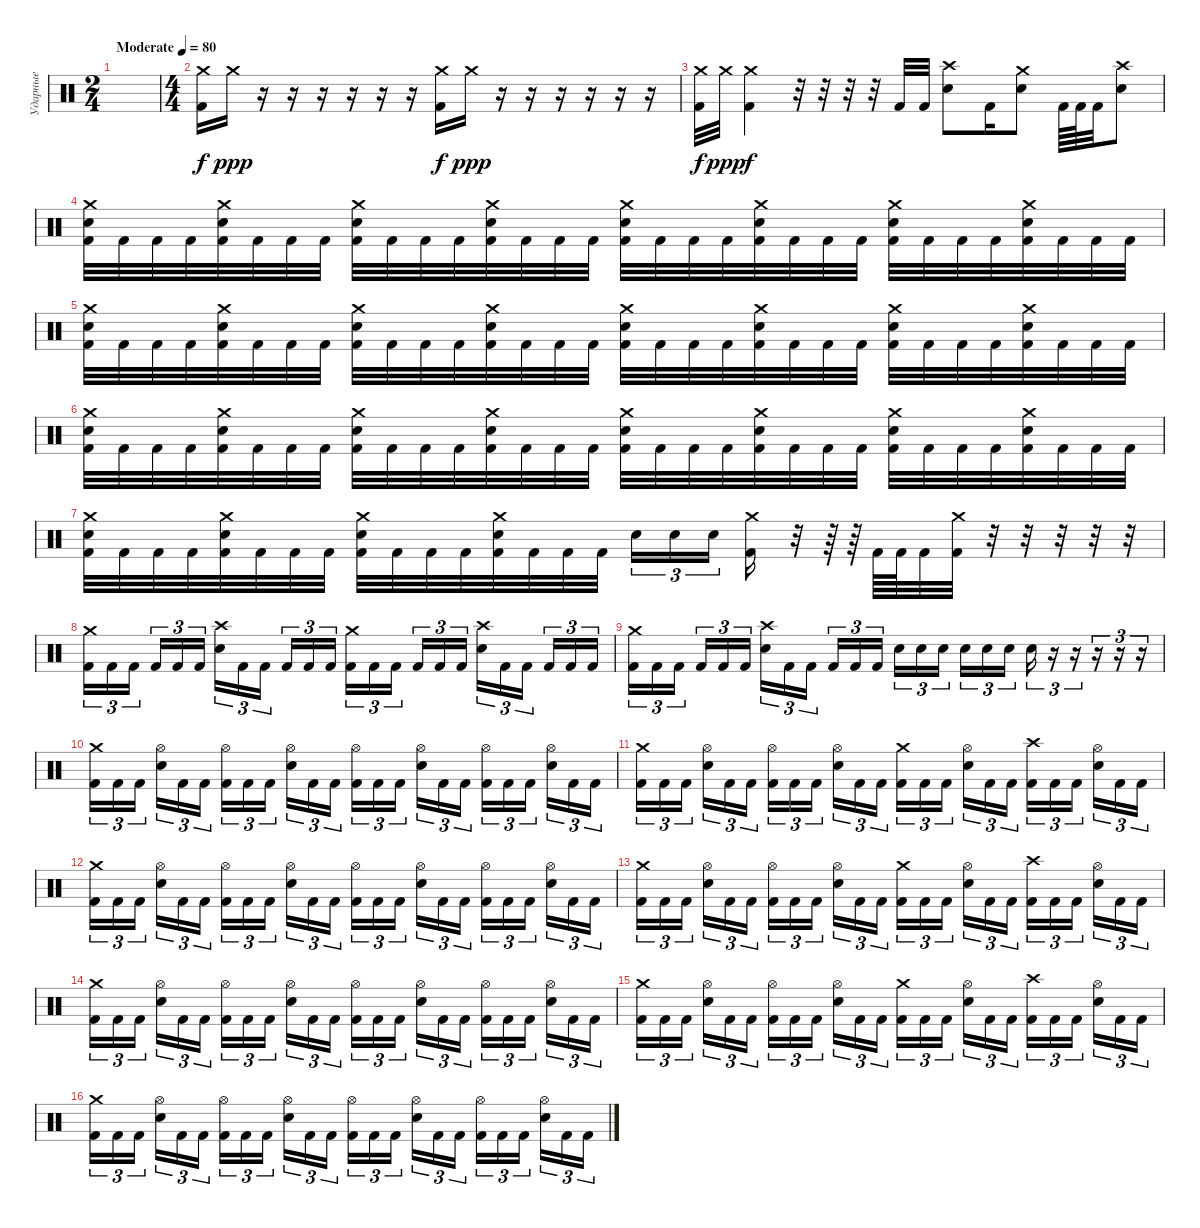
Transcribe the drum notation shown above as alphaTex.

\track ("Ударные" "Ударные") {instrument percussion}
\staff {score}
\articulation defaults
\ts (2 4)
\tempo (80 "Moderate")
\clef neutral
\ks c
|
\ts (4 4)
("Crash medium (hit)" "Kick (hit) 2").16 "Crash medium (hit)".16{dy ppp} r.16 r.16 r.16 r.16 r.16 r.16 ("Crash medium (hit)" "Kick (hit) 2").16{dy f} "Crash medium (hit)".16{dy ppp} r.16 r.16 r.16 r.16 r.16 r.16 |
("Crash medium (hit)" "Kick (hit) 2").32{dy f} "Crash medium (hit)".32{dy ppp} ("Crash medium (hit)" "Kick (hit) 2").4{dy f} r.32 r.32 r.32 r.32 "Kick (hit) 2".32 "Kick (hit) 2".32 ("Crash high (hit)" "Electric Snare (hit)").8 "Kick (hit) 2".16 ("Crash medium (hit)" "Electric Snare (hit)").8 "Kick (hit) 2".64 "Kick (hit) 2".64 "Kick (hit) 2".32 ("Crash high (hit)" "Electric Snare (hit)").8 |
("Crash medium (hit)" "Electric Snare (hit)" "Kick (hit) 2").32 "Kick (hit) 2".32 "Kick (hit) 2".32 "Kick (hit) 2".32 ("Crash medium (hit)" "Electric Snare (hit)" "Kick (hit) 2").32 "Kick (hit) 2".32 "Kick (hit) 2".32 "Kick (hit) 2".32 ("Crash medium (hit)" "Electric Snare (hit)" "Kick (hit) 2").32 "Kick (hit) 2".32 "Kick (hit) 2".32 "Kick (hit) 2".32 ("Crash medium (hit)" "Electric Snare (hit)" "Kick (hit) 2").32 "Kick (hit) 2".32 "Kick (hit) 2".32 "Kick (hit) 2".32 ("Crash medium (hit)" "Electric Snare (hit)" "Kick (hit) 2").32 "Kick (hit) 2".32 "Kick (hit) 2".32 "Kick (hit) 2".32 ("Crash medium (hit)" "Electric Snare (hit)" "Kick (hit) 2").32 "Kick (hit) 2".32 "Kick (hit) 2".32 "Kick (hit) 2".32 ("Crash medium (hit)" "Electric Snare (hit)" "Kick (hit) 2").32 "Kick (hit) 2".32 "Kick (hit) 2".32 "Kick (hit) 2".32 ("Crash medium (hit)" "Electric Snare (hit)" "Kick (hit) 2").32 "Kick (hit) 2".32 "Kick (hit) 2".32 "Kick (hit) 2".32 |
("Crash medium (hit)" "Electric Snare (hit)" "Kick (hit) 2").32 "Kick (hit) 2".32 "Kick (hit) 2".32 "Kick (hit) 2".32 ("Crash medium (hit)" "Electric Snare (hit)" "Kick (hit) 2").32 "Kick (hit) 2".32 "Kick (hit) 2".32 "Kick (hit) 2".32 ("Crash medium (hit)" "Electric Snare (hit)" "Kick (hit) 2").32 "Kick (hit) 2".32 "Kick (hit) 2".32 "Kick (hit) 2".32 ("Crash medium (hit)" "Electric Snare (hit)" "Kick (hit) 2").32 "Kick (hit) 2".32 "Kick (hit) 2".32 "Kick (hit) 2".32 ("Crash medium (hit)" "Electric Snare (hit)" "Kick (hit) 2").32 "Kick (hit) 2".32 "Kick (hit) 2".32 "Kick (hit) 2".32 ("Crash medium (hit)" "Electric Snare (hit)" "Kick (hit) 2").32 "Kick (hit) 2".32 "Kick (hit) 2".32 "Kick (hit) 2".32 ("Crash medium (hit)" "Electric Snare (hit)" "Kick (hit) 2").32 "Kick (hit) 2".32 "Kick (hit) 2".32 "Kick (hit) 2".32 ("Crash medium (hit)" "Electric Snare (hit)" "Kick (hit) 2").32 "Kick (hit) 2".32 "Kick (hit) 2".32 "Kick (hit) 2".32 |
("Crash medium (hit)" "Electric Snare (hit)" "Kick (hit) 2").32 "Kick (hit) 2".32 "Kick (hit) 2".32 "Kick (hit) 2".32 ("Crash medium (hit)" "Electric Snare (hit)" "Kick (hit) 2").32 "Kick (hit) 2".32 "Kick (hit) 2".32 "Kick (hit) 2".32 ("Crash medium (hit)" "Electric Snare (hit)" "Kick (hit) 2").32 "Kick (hit) 2".32 "Kick (hit) 2".32 "Kick (hit) 2".32 ("Crash medium (hit)" "Electric Snare (hit)" "Kick (hit) 2").32 "Kick (hit) 2".32 "Kick (hit) 2".32 "Kick (hit) 2".32 ("Crash medium (hit)" "Electric Snare (hit)" "Kick (hit) 2").32 "Kick (hit) 2".32 "Kick (hit) 2".32 "Kick (hit) 2".32 ("Crash medium (hit)" "Electric Snare (hit)" "Kick (hit) 2").32 "Kick (hit) 2".32 "Kick (hit) 2".32 "Kick (hit) 2".32 ("Crash medium (hit)" "Electric Snare (hit)" "Kick (hit) 2").32 "Kick (hit) 2".32 "Kick (hit) 2".32 "Kick (hit) 2".32 ("Crash medium (hit)" "Electric Snare (hit)" "Kick (hit) 2").32 "Kick (hit) 2".32 "Kick (hit) 2".32 "Kick (hit) 2".32 |
("Crash medium (hit)" "Electric Snare (hit)" "Kick (hit) 2").32 "Kick (hit) 2".32 "Kick (hit) 2".32 "Kick (hit) 2".32 ("Crash medium (hit)" "Electric Snare (hit)" "Kick (hit) 2").32 "Kick (hit) 2".32 "Kick (hit) 2".32 "Kick (hit) 2".32 ("Crash medium (hit)" "Electric Snare (hit)" "Kick (hit) 2").32 "Kick (hit) 2".32 "Kick (hit) 2".32 "Kick (hit) 2".32 ("Crash medium (hit)" "Electric Snare (hit)" "Kick (hit) 2").32 "Kick (hit) 2".32 "Kick (hit) 2".32 "Kick (hit) 2".32 "Electric Snare (hit)".16{tu (3 2)} "Electric Snare (hit)".16{tu (3 2)} "Electric Snare (hit)".16{tu (3 2) beam splitsecondary} ("Crash medium (hit)" "Kick (hit) 2").16 r.32 r.64 r.64 "Kick (hit) 2".64 "Kick (hit) 2".64 "Kick (hit) 2".32 ("Crash medium (hit)" "Kick (hit) 2").32 r.32 r.32 r.32 r.32 r.32 |
("Crash medium (hit)" "Kick (hit) 2").16{tu (3 2)} "Kick (hit) 2".16{tu (3 2)} "Kick (hit) 2".16{tu (3 2) beam splitsecondary} "Kick (hit) 2".16{tu (3 2)} "Kick (hit) 2".16{tu (3 2)} "Kick (hit) 2".16{tu (3 2)} ("Crash high (hit)" "Electric Snare (hit)").16{tu (3 2)} "Kick (hit) 2".16{tu (3 2)} "Kick (hit) 2".16{tu (3 2) beam splitsecondary} "Kick (hit) 2".16{tu (3 2)} "Kick (hit) 2".16{tu (3 2)} "Kick (hit) 2".16{tu (3 2)} ("Crash medium (hit)" "Kick (hit) 2").16{tu (3 2)} "Kick (hit) 2".16{tu (3 2)} "Kick (hit) 2".16{tu (3 2) beam splitsecondary} "Kick (hit) 2".16{tu (3 2)} "Kick (hit) 2".16{tu (3 2)} "Kick (hit) 2".16{tu (3 2)} ("Crash high (hit)" "Electric Snare (hit)").16{tu (3 2)} "Kick (hit) 2".16{tu (3 2)} "Kick (hit) 2".16{tu (3 2) beam splitsecondary} "Kick (hit) 2".16{tu (3 2)} "Kick (hit) 2".16{tu (3 2)} "Kick (hit) 2".16{tu (3 2)} |
("Crash medium (hit)" "Kick (hit) 2").16{tu (3 2)} "Kick (hit) 2".16{tu (3 2)} "Kick (hit) 2".16{tu (3 2) beam splitsecondary} "Kick (hit) 2".16{tu (3 2)} "Kick (hit) 2".16{tu (3 2)} "Kick (hit) 2".16{tu (3 2)} ("Crash high (hit)" "Electric Snare (hit)").16{tu (3 2)} "Kick (hit) 2".16{tu (3 2)} "Kick (hit) 2".16{tu (3 2) beam splitsecondary} "Kick (hit) 2".16{tu (3 2)} "Kick (hit) 2".16{tu (3 2)} "Kick (hit) 2".16{tu (3 2)} "Electric Snare (hit)".16{tu (3 2)} "Electric Snare (hit)".16{tu (3 2)} "Electric Snare (hit)".16{tu (3 2) beam splitsecondary} "Electric Snare (hit)".16{tu (3 2)} "Electric Snare (hit)".16{tu (3 2)} "Electric Snare (hit)".16{tu (3 2)} "Electric Snare (hit)".16{tu (3 2)} r.16{tu (3 2)} r.16{tu (3 2)} r.16{tu (3 2)} r.16{tu (3 2)} r.16{tu (3 2)} |
("Crash medium (hit)" "Kick (hit) 2").16{tu (3 2)} "Kick (hit) 2".16{tu (3 2)} "Kick (hit) 2".16{tu (3 2) beam splitsecondary} ("Hi-Hat (open)" "Electric Snare (hit)").16{tu (3 2)} "Kick (hit) 2".16{tu (3 2)} "Kick (hit) 2".16{tu (3 2)} ("Hi-Hat (open)" "Kick (hit) 2").16{tu (3 2)} "Kick (hit) 2".16{tu (3 2)} "Kick (hit) 2".16{tu (3 2) beam splitsecondary} ("Hi-Hat (open)" "Electric Snare (hit)").16{tu (3 2)} "Kick (hit) 2".16{tu (3 2)} "Kick (hit) 2".16{tu (3 2)} ("Hi-Hat (open)" "Kick (hit) 2").16{tu (3 2)} "Kick (hit) 2".16{tu (3 2)} "Kick (hit) 2".16{tu (3 2) beam splitsecondary} ("Hi-Hat (open)" "Electric Snare (hit)").16{tu (3 2)} "Kick (hit) 2".16{tu (3 2)} "Kick (hit) 2".16{tu (3 2)} ("Hi-Hat (open)" "Kick (hit) 2").16{tu (3 2)} "Kick (hit) 2".16{tu (3 2)} "Kick (hit) 2".16{tu (3 2) beam splitsecondary} ("Hi-Hat (open)" "Electric Snare (hit)").16{tu (3 2)} "Kick (hit) 2".16{tu (3 2)} "Kick (hit) 2".16{tu (3 2)} |
("Crash medium (hit)" "Kick (hit) 2").16{tu (3 2)} "Kick (hit) 2".16{tu (3 2)} "Kick (hit) 2".16{tu (3 2) beam splitsecondary} ("Hi-Hat (open)" "Electric Snare (hit)").16{tu (3 2)} "Kick (hit) 2".16{tu (3 2)} "Kick (hit) 2".16{tu (3 2)} ("Hi-Hat (open)" "Kick (hit) 2").16{tu (3 2)} "Kick (hit) 2".16{tu (3 2)} "Kick (hit) 2".16{tu (3 2) beam splitsecondary} ("Hi-Hat (open)" "Electric Snare (hit)").16{tu (3 2)} "Kick (hit) 2".16{tu (3 2)} "Kick (hit) 2".16{tu (3 2)} ("Crash medium (hit)" "Kick (hit) 2").16{tu (3 2)} "Kick (hit) 2".16{tu (3 2)} "Kick (hit) 2".16{tu (3 2) beam splitsecondary} ("Hi-Hat (open)" "Electric Snare (hit)").16{tu (3 2)} "Kick (hit) 2".16{tu (3 2)} "Kick (hit) 2".16{tu (3 2)} ("Crash high (hit)" "Kick (hit) 2").16{tu (3 2)} "Kick (hit) 2".16{tu (3 2)} "Kick (hit) 2".16{tu (3 2) beam splitsecondary} ("Hi-Hat (open)" "Electric Snare (hit)").16{tu (3 2)} "Kick (hit) 2".16{tu (3 2)} "Kick (hit) 2".16{tu (3 2)} |
("Crash medium (hit)" "Kick (hit) 2").16{tu (3 2)} "Kick (hit) 2".16{tu (3 2)} "Kick (hit) 2".16{tu (3 2) beam splitsecondary} ("Hi-Hat (open)" "Electric Snare (hit)").16{tu (3 2)} "Kick (hit) 2".16{tu (3 2)} "Kick (hit) 2".16{tu (3 2)} ("Hi-Hat (open)" "Kick (hit) 2").16{tu (3 2)} "Kick (hit) 2".16{tu (3 2)} "Kick (hit) 2".16{tu (3 2) beam splitsecondary} ("Hi-Hat (open)" "Electric Snare (hit)").16{tu (3 2)} "Kick (hit) 2".16{tu (3 2)} "Kick (hit) 2".16{tu (3 2)} ("Hi-Hat (open)" "Kick (hit) 2").16{tu (3 2)} "Kick (hit) 2".16{tu (3 2)} "Kick (hit) 2".16{tu (3 2) beam splitsecondary} ("Hi-Hat (open)" "Electric Snare (hit)").16{tu (3 2)} "Kick (hit) 2".16{tu (3 2)} "Kick (hit) 2".16{tu (3 2)} ("Hi-Hat (open)" "Kick (hit) 2").16{tu (3 2)} "Kick (hit) 2".16{tu (3 2)} "Kick (hit) 2".16{tu (3 2) beam splitsecondary} ("Hi-Hat (open)" "Electric Snare (hit)").16{tu (3 2)} "Kick (hit) 2".16{tu (3 2)} "Kick (hit) 2".16{tu (3 2)} |
("Crash medium (hit)" "Kick (hit) 2").16{tu (3 2)} "Kick (hit) 2".16{tu (3 2)} "Kick (hit) 2".16{tu (3 2) beam splitsecondary} ("Hi-Hat (open)" "Electric Snare (hit)").16{tu (3 2)} "Kick (hit) 2".16{tu (3 2)} "Kick (hit) 2".16{tu (3 2)} ("Hi-Hat (open)" "Kick (hit) 2").16{tu (3 2)} "Kick (hit) 2".16{tu (3 2)} "Kick (hit) 2".16{tu (3 2) beam splitsecondary} ("Hi-Hat (open)" "Electric Snare (hit)").16{tu (3 2)} "Kick (hit) 2".16{tu (3 2)} "Kick (hit) 2".16{tu (3 2)} ("Crash medium (hit)" "Kick (hit) 2").16{tu (3 2)} "Kick (hit) 2".16{tu (3 2)} "Kick (hit) 2".16{tu (3 2) beam splitsecondary} ("Hi-Hat (open)" "Electric Snare (hit)").16{tu (3 2)} "Kick (hit) 2".16{tu (3 2)} "Kick (hit) 2".16{tu (3 2)} ("Crash high (hit)" "Kick (hit) 2").16{tu (3 2)} "Kick (hit) 2".16{tu (3 2)} "Kick (hit) 2".16{tu (3 2) beam splitsecondary} ("Hi-Hat (open)" "Electric Snare (hit)").16{tu (3 2)} "Kick (hit) 2".16{tu (3 2)} "Kick (hit) 2".16{tu (3 2)} |
("Crash medium (hit)" "Kick (hit) 2").16{tu (3 2)} "Kick (hit) 2".16{tu (3 2)} "Kick (hit) 2".16{tu (3 2) beam splitsecondary} ("Hi-Hat (open)" "Electric Snare (hit)").16{tu (3 2)} "Kick (hit) 2".16{tu (3 2)} "Kick (hit) 2".16{tu (3 2)} ("Hi-Hat (open)" "Kick (hit) 2").16{tu (3 2)} "Kick (hit) 2".16{tu (3 2)} "Kick (hit) 2".16{tu (3 2) beam splitsecondary} ("Hi-Hat (open)" "Electric Snare (hit)").16{tu (3 2)} "Kick (hit) 2".16{tu (3 2)} "Kick (hit) 2".16{tu (3 2)} ("Hi-Hat (open)" "Kick (hit) 2").16{tu (3 2)} "Kick (hit) 2".16{tu (3 2)} "Kick (hit) 2".16{tu (3 2) beam splitsecondary} ("Hi-Hat (open)" "Electric Snare (hit)").16{tu (3 2)} "Kick (hit) 2".16{tu (3 2)} "Kick (hit) 2".16{tu (3 2)} ("Hi-Hat (open)" "Kick (hit) 2").16{tu (3 2)} "Kick (hit) 2".16{tu (3 2)} "Kick (hit) 2".16{tu (3 2) beam splitsecondary} ("Hi-Hat (open)" "Electric Snare (hit)").16{tu (3 2)} "Kick (hit) 2".16{tu (3 2)} "Kick (hit) 2".16{tu (3 2)} |
("Crash medium (hit)" "Kick (hit) 2").16{tu (3 2)} "Kick (hit) 2".16{tu (3 2)} "Kick (hit) 2".16{tu (3 2) beam splitsecondary} ("Hi-Hat (open)" "Electric Snare (hit)").16{tu (3 2)} "Kick (hit) 2".16{tu (3 2)} "Kick (hit) 2".16{tu (3 2)} ("Hi-Hat (open)" "Kick (hit) 2").16{tu (3 2)} "Kick (hit) 2".16{tu (3 2)} "Kick (hit) 2".16{tu (3 2) beam splitsecondary} ("Hi-Hat (open)" "Electric Snare (hit)").16{tu (3 2)} "Kick (hit) 2".16{tu (3 2)} "Kick (hit) 2".16{tu (3 2)} ("Crash medium (hit)" "Kick (hit) 2").16{tu (3 2)} "Kick (hit) 2".16{tu (3 2)} "Kick (hit) 2".16{tu (3 2) beam splitsecondary} ("Hi-Hat (open)" "Electric Snare (hit)").16{tu (3 2)} "Kick (hit) 2".16{tu (3 2)} "Kick (hit) 2".16{tu (3 2)} ("Crash high (hit)" "Kick (hit) 2").16{tu (3 2)} "Kick (hit) 2".16{tu (3 2)} "Kick (hit) 2".16{tu (3 2) beam splitsecondary} ("Hi-Hat (open)" "Electric Snare (hit)").16{tu (3 2)} "Kick (hit) 2".16{tu (3 2)} "Kick (hit) 2".16{tu (3 2)} |
("Crash medium (hit)" "Kick (hit) 2").16{tu (3 2)} "Kick (hit) 2".16{tu (3 2)} "Kick (hit) 2".16{tu (3 2) beam splitsecondary} ("Hi-Hat (open)" "Electric Snare (hit)").16{tu (3 2)} "Kick (hit) 2".16{tu (3 2)} "Kick (hit) 2".16{tu (3 2)} ("Hi-Hat (open)" "Kick (hit) 2").16{tu (3 2)} "Kick (hit) 2".16{tu (3 2)} "Kick (hit) 2".16{tu (3 2) beam splitsecondary} ("Hi-Hat (open)" "Electric Snare (hit)").16{tu (3 2)} "Kick (hit) 2".16{tu (3 2)} "Kick (hit) 2".16{tu (3 2)} ("Hi-Hat (open)" "Kick (hit) 2").16{tu (3 2)} "Kick (hit) 2".16{tu (3 2)} "Kick (hit) 2".16{tu (3 2) beam splitsecondary} ("Hi-Hat (open)" "Electric Snare (hit)").16{tu (3 2)} "Kick (hit) 2".16{tu (3 2)} "Kick (hit) 2".16{tu (3 2)} ("Hi-Hat (open)" "Kick (hit) 2").16{tu (3 2)} "Kick (hit) 2".16{tu (3 2)} "Kick (hit) 2".16{tu (3 2) beam splitsecondary} ("Hi-Hat (open)" "Electric Snare (hit)").16{tu (3 2)} "Kick (hit) 2".16{tu (3 2)} "Kick (hit) 2".16{tu (3 2)}
